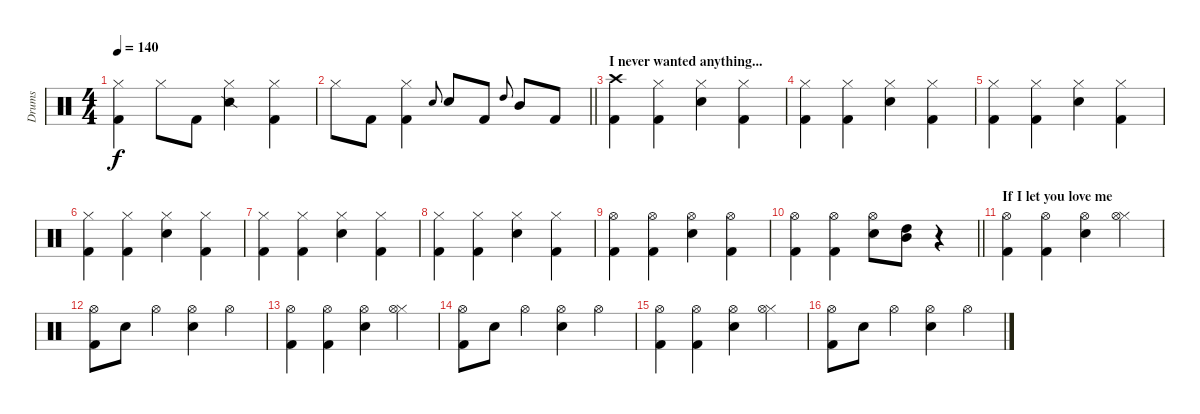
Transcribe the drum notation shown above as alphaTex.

\track ("Drums" "Drums") {instrument percussion}
\staff {score}
\articulation defaults
\ts (4 4)
\tempo 140
\clef neutral
\ks c
("Kick (hit) 2" "Hi-Hat (closed)").4{dy f} "Hi-Hat (closed)".8 "Kick (hit) 2".8 ("Hi-Hat (closed)" "Snare (side stick) 2").4 ("Kick (hit) 2" "Hi-Hat (closed)").4 |
\barLineRight lightlight "Hi-Hat (closed)".8 "Kick (hit) 2".8
("Kick (hit) 2" "Hi-Hat (closed)").4 "Electric Snare (hit)".8{gr onbeat} "Electric Snare (hit)".8 "Kick (hit) 2".8 "High Tom (hit)".8{gr onbeat} "Mid Tom (hit)".8 "Kick (hit) 2".8 |
\section ("" "I never wanted anything...")
("Kick (hit) 2" "Crash high (hit)").4 ("Kick (hit) 2" "Hi-Hat (closed)").4 ("Electric Snare (hit)" "Hi-Hat (closed)").4 ("Kick (hit) 2" "Hi-Hat (closed)").4 |
("Kick (hit) 2" "Hi-Hat (closed)").4 ("Kick (hit) 2" "Hi-Hat (closed)").4 ("Electric Snare (hit)" "Hi-Hat (closed)").4 ("Hi-Hat (closed)" "Kick (hit) 2").4 |
("Kick (hit) 2" "Hi-Hat (closed)").4 ("Kick (hit) 2" "Hi-Hat (closed)").4 ("Electric Snare (hit)" "Hi-Hat (closed)").4 ("Hi-Hat (closed)" "Kick (hit) 2").4 |
("Kick (hit) 2" "Hi-Hat (closed)").4 ("Kick (hit) 2" "Hi-Hat (closed)").4 ("Electric Snare (hit)" "Hi-Hat (closed)").4 ("Hi-Hat (closed)" "Kick (hit) 2").4 |
("Kick (hit) 2" "Hi-Hat (closed)").4 ("Kick (hit) 2" "Hi-Hat (closed)").4 ("Electric Snare (hit)" "Hi-Hat (closed)").4 ("Hi-Hat (closed)" "Kick (hit) 2").4 |
("Kick (hit) 2" "Hi-Hat (closed)").4 ("Kick (hit) 2" "Hi-Hat (closed)").4 ("Electric Snare (hit)" "Hi-Hat (closed)").4 ("Hi-Hat (closed)" "Kick (hit) 2").4 |
("Kick (hit) 2" "Hi-Hat (open)").4 ("Kick (hit) 2" "Hi-Hat (open)").4 ("Electric Snare (hit)" "Hi-Hat (open)").4 ("Kick (hit) 2" "Hi-Hat (open)").4 |
\barLineRight lightlight
("Kick (hit) 2" "Hi-Hat (open)").4 ("Hi-Hat (open)" "Kick (hit) 2").4 ("Electric Snare (hit)" "Hi-Hat (open)").8 ("Mid Tom (hit)" "High Tom (hit)").8 r.4 |
\section ("" "If I let you love me")
("Kick (hit) 2" "Hi-Hat (open)").4 ("Kick (hit) 2" "Hi-Hat (open)").4 ("Electric Snare (hit)" "Hi-Hat (open)").4 ("Hi-Hat (closed)" "Hi-Hat (open)").4 |
("Kick (hit) 2" "Hi-Hat (open)").8 "Electric Snare (hit)".8 "Hi-Hat (open)".4 ("Electric Snare (hit)" "Hi-Hat (open)").4 "Hi-Hat (open)".4 |
("Kick (hit) 2" "Hi-Hat (open)").4 ("Kick (hit) 2" "Hi-Hat (open)").4 ("Electric Snare (hit)" "Hi-Hat (open)").4 ("Hi-Hat (closed)" "Hi-Hat (open)").4 |
("Kick (hit) 2" "Hi-Hat (open)").8 "Electric Snare (hit)".8 "Hi-Hat (open)".4 ("Electric Snare (hit)" "Hi-Hat (open)").4 "Hi-Hat (open)".4 |
("Kick (hit) 2" "Hi-Hat (open)").4 ("Kick (hit) 2" "Hi-Hat (open)").4 ("Electric Snare (hit)" "Hi-Hat (open)").4 ("Hi-Hat (closed)" "Hi-Hat (open)").4 |
("Kick (hit) 2" "Hi-Hat (open)").8 "Electric Snare (hit)".8 "Hi-Hat (open)".4 ("Electric Snare (hit)" "Hi-Hat (open)").4 "Hi-Hat (open)".4
